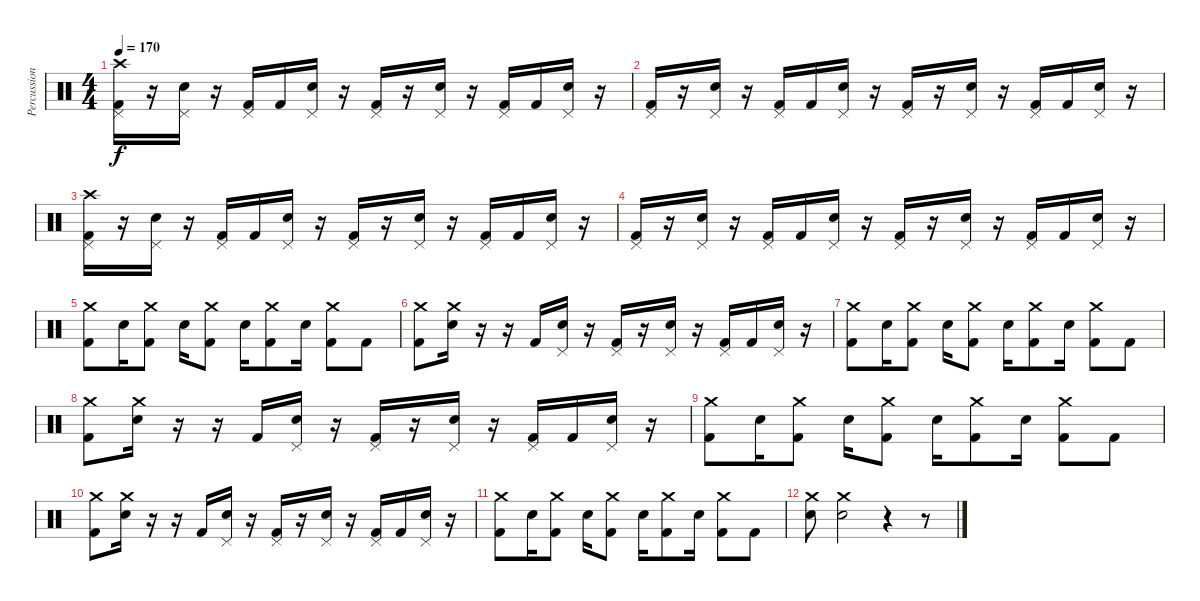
\track ("Percussion" "Percussion") {instrument percussion}
\staff {score}
\articulation defaults
\ts (4 4)
\tempo 170
\clef neutral
\ks c
("Kick (hit) 2" "Pedal Hi-Hat (hit)" "Crash high (hit)").16{dy f} r.16 ("Electric Snare (hit)" "Pedal Hi-Hat (hit)").16 r.16 ("Kick (hit) 2" "Pedal Hi-Hat (hit)").16 "Kick (hit) 2".16 ("Electric Snare (hit)" "Pedal Hi-Hat (hit)").16 r.16 ("Kick (hit) 2" "Pedal Hi-Hat (hit)").16 r.16 ("Electric Snare (hit)" "Pedal Hi-Hat (hit)").16 r.16 ("Kick (hit) 2" "Pedal Hi-Hat (hit)").16 "Kick (hit) 2".16 ("Electric Snare (hit)" "Pedal Hi-Hat (hit)").16 r.16 |
("Kick (hit) 2" "Pedal Hi-Hat (hit)").16 r.16 ("Electric Snare (hit)" "Pedal Hi-Hat (hit)").16 r.16 ("Kick (hit) 2" "Pedal Hi-Hat (hit)").16 "Kick (hit) 2".16 ("Electric Snare (hit)" "Pedal Hi-Hat (hit)").16 r.16 ("Kick (hit) 2" "Pedal Hi-Hat (hit)").16 r.16 ("Electric Snare (hit)" "Pedal Hi-Hat (hit)").16 r.16 ("Kick (hit) 2" "Pedal Hi-Hat (hit)").16 "Kick (hit) 2".16 ("Electric Snare (hit)" "Pedal Hi-Hat (hit)").16 r.16 |
("Kick (hit) 2" "Pedal Hi-Hat (hit)" "Crash high (hit)").16 r.16 ("Electric Snare (hit)" "Pedal Hi-Hat (hit)").16 r.16 ("Kick (hit) 2" "Pedal Hi-Hat (hit)").16 "Kick (hit) 2".16 ("Electric Snare (hit)" "Pedal Hi-Hat (hit)").16 r.16 ("Kick (hit) 2" "Pedal Hi-Hat (hit)").16 r.16 ("Electric Snare (hit)" "Pedal Hi-Hat (hit)").16 r.16 ("Kick (hit) 2" "Pedal Hi-Hat (hit)").16 "Kick (hit) 2".16 ("Electric Snare (hit)" "Pedal Hi-Hat (hit)").16 r.16 |
("Kick (hit) 2" "Pedal Hi-Hat (hit)").16 r.16 ("Electric Snare (hit)" "Pedal Hi-Hat (hit)").16 r.16 ("Kick (hit) 2" "Pedal Hi-Hat (hit)").16 "Kick (hit) 2".16 ("Electric Snare (hit)" "Pedal Hi-Hat (hit)").16 r.16 ("Kick (hit) 2" "Pedal Hi-Hat (hit)").16 r.16 ("Electric Snare (hit)" "Pedal Hi-Hat (hit)").16 r.16 ("Kick (hit) 2" "Pedal Hi-Hat (hit)").16 "Kick (hit) 2".16 ("Electric Snare (hit)" "Pedal Hi-Hat (hit)").16 r.16 |
("Kick (hit) 2" "Crash medium (hit)").8 "Electric Snare (hit)".16 ("Kick (hit) 2" "Crash medium (hit)").8 "Electric Snare (hit)".16 ("Kick (hit) 2" "Crash medium (hit)").8 "Electric Snare (hit)".16 ("Kick (hit) 2" "Crash medium (hit)").8 "Electric Snare (hit)".16 ("Kick (hit) 2" "Crash medium (hit)").8 "Kick (hit) 2".8 |
("Kick (hit) 2" "Crash medium (hit)").8 ("Electric Snare (hit)" "Crash medium (hit)").16 r.16 r.16 "Kick (hit) 2".16 ("Electric Snare (hit)" "Pedal Hi-Hat (hit)").16 r.16 ("Kick (hit) 2" "Pedal Hi-Hat (hit)").16 r.16 ("Electric Snare (hit)" "Pedal Hi-Hat (hit)").16 r.16 ("Kick (hit) 2" "Pedal Hi-Hat (hit)").16 "Kick (hit) 2".16 ("Electric Snare (hit)" "Pedal Hi-Hat (hit)").16 r.16 |
("Kick (hit) 2" "Crash medium (hit)").8 "Electric Snare (hit)".16 ("Kick (hit) 2" "Crash medium (hit)").8 "Electric Snare (hit)".16 ("Kick (hit) 2" "Crash medium (hit)").8 "Electric Snare (hit)".16 ("Kick (hit) 2" "Crash medium (hit)").8 "Electric Snare (hit)".16 ("Kick (hit) 2" "Crash medium (hit)").8 "Kick (hit) 2".8 |
("Kick (hit) 2" "Crash medium (hit)").8 ("Electric Snare (hit)" "Crash medium (hit)").16 r.16 r.16 "Kick (hit) 2".16 ("Electric Snare (hit)" "Pedal Hi-Hat (hit)").16 r.16 ("Kick (hit) 2" "Pedal Hi-Hat (hit)").16 r.16 ("Electric Snare (hit)" "Pedal Hi-Hat (hit)").16 r.16 ("Kick (hit) 2" "Pedal Hi-Hat (hit)").16 "Kick (hit) 2".16 ("Electric Snare (hit)" "Pedal Hi-Hat (hit)").16 r.16 |
("Kick (hit) 2" "Crash medium (hit)").8 "Electric Snare (hit)".16 ("Kick (hit) 2" "Crash medium (hit)").8 "Electric Snare (hit)".16 ("Kick (hit) 2" "Crash medium (hit)").8 "Electric Snare (hit)".16 ("Kick (hit) 2" "Crash medium (hit)").8 "Electric Snare (hit)".16 ("Kick (hit) 2" "Crash medium (hit)").8 "Kick (hit) 2".8 |
("Kick (hit) 2" "Crash medium (hit)").8 ("Electric Snare (hit)" "Crash medium (hit)").16 r.16 r.16 "Kick (hit) 2".16 ("Electric Snare (hit)" "Pedal Hi-Hat (hit)").16 r.16 ("Kick (hit) 2" "Pedal Hi-Hat (hit)").16 r.16 ("Electric Snare (hit)" "Pedal Hi-Hat (hit)").16 r.16 ("Kick (hit) 2" "Pedal Hi-Hat (hit)").16 "Kick (hit) 2".16 ("Electric Snare (hit)" "Pedal Hi-Hat (hit)").16 r.16 |
("Kick (hit) 2" "Crash medium (hit)").8 "Electric Snare (hit)".16 ("Kick (hit) 2" "Crash medium (hit)").8 "Electric Snare (hit)".16 ("Kick (hit) 2" "Crash medium (hit)").8 "Electric Snare (hit)".16 ("Kick (hit) 2" "Crash medium (hit)").8 "Electric Snare (hit)".16 ("Kick (hit) 2" "Crash medium (hit)").8 "Kick (hit) 2".8 |
("Electric Snare (hit)" "Crash medium (hit)").8 ("Electric Snare (hit)" "Crash medium (hit)").2 r.4 r.8
